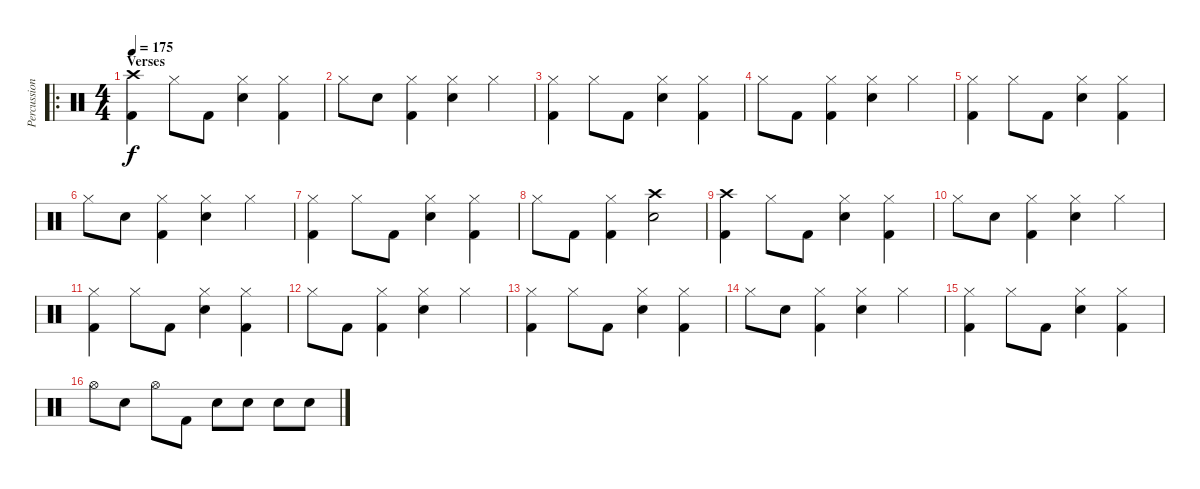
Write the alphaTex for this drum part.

\track ("Percussion" "Percussion") {instrument percussion}
\staff {score}
\articulation defaults
\ro
\ts (4 4)
\section ("" "Verses")
\tempo 175
\clef neutral
\ks c
("Crash high (hit)" "Kick (hit) 2").4{dy f} "Hi-Hat (closed)".8 "Kick (hit) 2".8 ("Hi-Hat (closed)" "Electric Snare (hit)").4 ("Hi-Hat (closed)" "Kick (hit) 2").4 |
"Hi-Hat (closed)".8 "Electric Snare (hit)".8 ("Hi-Hat (closed)" "Kick (hit) 2").4 ("Hi-Hat (closed)" "Electric Snare (hit)").4 "Hi-Hat (closed)".4 |
("Hi-Hat (closed)" "Kick (hit) 2").4 "Hi-Hat (closed)".8 "Kick (hit) 2".8 ("Hi-Hat (closed)" "Electric Snare (hit)").4 ("Hi-Hat (closed)" "Kick (hit) 2").4 |
"Hi-Hat (closed)".8 "Kick (hit) 2".8 ("Hi-Hat (closed)" "Kick (hit) 2").4 ("Hi-Hat (closed)" "Electric Snare (hit)").4 "Hi-Hat (closed)".4 |
("Hi-Hat (closed)" "Kick (hit) 2").4 "Hi-Hat (closed)".8 "Kick (hit) 2".8 ("Hi-Hat (closed)" "Electric Snare (hit)").4 ("Hi-Hat (closed)" "Kick (hit) 2").4 |
"Hi-Hat (closed)".8 "Electric Snare (hit)".8 ("Hi-Hat (closed)" "Kick (hit) 2").4 ("Hi-Hat (closed)" "Electric Snare (hit)").4 "Hi-Hat (closed)".4 |
("Hi-Hat (closed)" "Kick (hit) 2").4 "Hi-Hat (closed)".8 "Kick (hit) 2".8 ("Hi-Hat (closed)" "Electric Snare (hit)").4 ("Hi-Hat (closed)" "Kick (hit) 2").4 |
"Hi-Hat (closed)".8 "Kick (hit) 2".8 ("Hi-Hat (closed)" "Kick (hit) 2").4 ("Crash high (hit)" "Electric Snare (hit)").2 |
("Crash high (hit)" "Kick (hit) 2").4 "Hi-Hat (closed)".8 "Kick (hit) 2".8 ("Hi-Hat (closed)" "Electric Snare (hit)").4 ("Hi-Hat (closed)" "Kick (hit) 2").4 |
"Hi-Hat (closed)".8 "Electric Snare (hit)".8 ("Hi-Hat (closed)" "Kick (hit) 2").4 ("Hi-Hat (closed)" "Electric Snare (hit)").4 "Hi-Hat (closed)".4 |
("Hi-Hat (closed)" "Kick (hit) 2").4 "Hi-Hat (closed)".8 "Kick (hit) 2".8 ("Hi-Hat (closed)" "Electric Snare (hit)").4 ("Hi-Hat (closed)" "Kick (hit) 2").4 |
"Hi-Hat (closed)".8 "Kick (hit) 2".8 ("Hi-Hat (closed)" "Kick (hit) 2").4 ("Hi-Hat (closed)" "Electric Snare (hit)").4 "Hi-Hat (closed)".4 |
("Hi-Hat (closed)" "Kick (hit) 2").4 "Hi-Hat (closed)".8 "Kick (hit) 2".8 ("Hi-Hat (closed)" "Electric Snare (hit)").4 ("Hi-Hat (closed)" "Kick (hit) 2").4 |
"Hi-Hat (closed)".8 "Electric Snare (hit)".8 ("Hi-Hat (closed)" "Kick (hit) 2").4 ("Hi-Hat (closed)" "Electric Snare (hit)").4 "Hi-Hat (closed)".4 |
("Hi-Hat (closed)" "Kick (hit) 2").4 "Hi-Hat (closed)".8 "Kick (hit) 2".8 ("Hi-Hat (closed)" "Electric Snare (hit)").4 ("Hi-Hat (closed)" "Kick (hit) 2").4 |
"Hi-Hat (open)".8 "Electric Snare (hit)".8 "Hi-Hat (open)".8 "Kick (hit) 2".8 "Electric Snare (hit)".8 "Electric Snare (hit)".8 "Electric Snare (hit)".8 "Electric Snare (hit)".8
